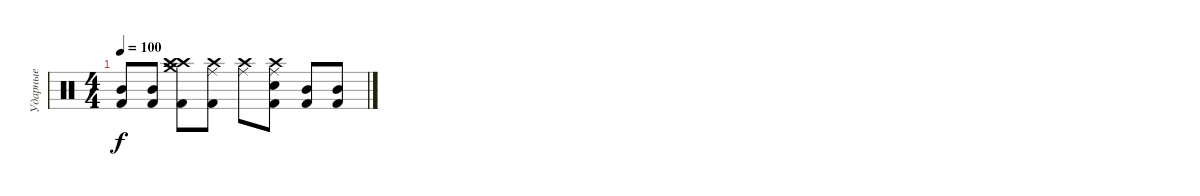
\track ("Ударные" "Ударные") {instrument percussion}
\staff {score}
\articulation defaults
\ts (4 4)
\tempo 100
\clef neutral
\ks c
("Kick (hit) 2" "Mid Tom (hit)").8{dy f} ("Kick (hit) 2" "Mid Tom (hit)").8 ("Crash high (hit)" "Crash medium (hit)" "Crash high (hit)" "Kick (hit) 2").8 ("Crash high (hit)" "Kick (hit) 2" "Ride (middle)").8 ("Crash high (hit)" "Ride (middle)").8 ("Crash high (hit)" "Electric Snare (hit)" "Kick (hit) 2" "Ride (middle)").8 ("Kick (hit) 2" "Mid Tom (hit)").8 ("Kick (hit) 2" "Mid Tom (hit)").8
